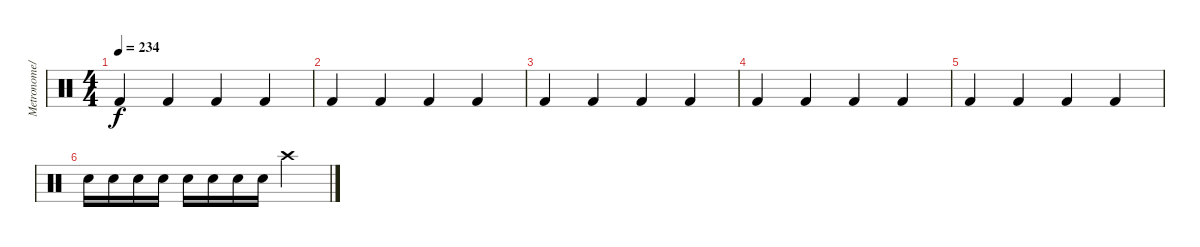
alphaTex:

\track ("Metronome/Beat" "Metronome/") {instrument percussion}
\staff {score}
\articulation defaults
\ts (4 4)
\tempo 234
\clef neutral
\ks c "Kick (hit) 2".4{dy f} "Kick (hit) 2".4 "Kick (hit) 2".4 "Kick (hit) 2".4
|
"Kick (hit) 2".4 "Kick (hit) 2".4 "Kick (hit) 2".4 "Kick (hit) 2".4 |
"Kick (hit) 2".4 "Kick (hit) 2".4 "Kick (hit) 2".4 "Kick (hit) 2".4 |
"Kick (hit) 2".4 "Kick (hit) 2".4 "Kick (hit) 2".4 "Kick (hit) 2".4 |
"Kick (hit) 2".4 "Kick (hit) 2".4 "Kick (hit) 2".4 "Kick (hit) 2".4 |
"Electric Snare (hit)".16 "Electric Snare (hit)".16 "Electric Snare (hit)".16 "Electric Snare (hit)".16 "Electric Snare (hit)".16 "Electric Snare (hit)".16 "Electric Snare (hit)".16 "Electric Snare (hit)".16 "Crash high (hit)".2
